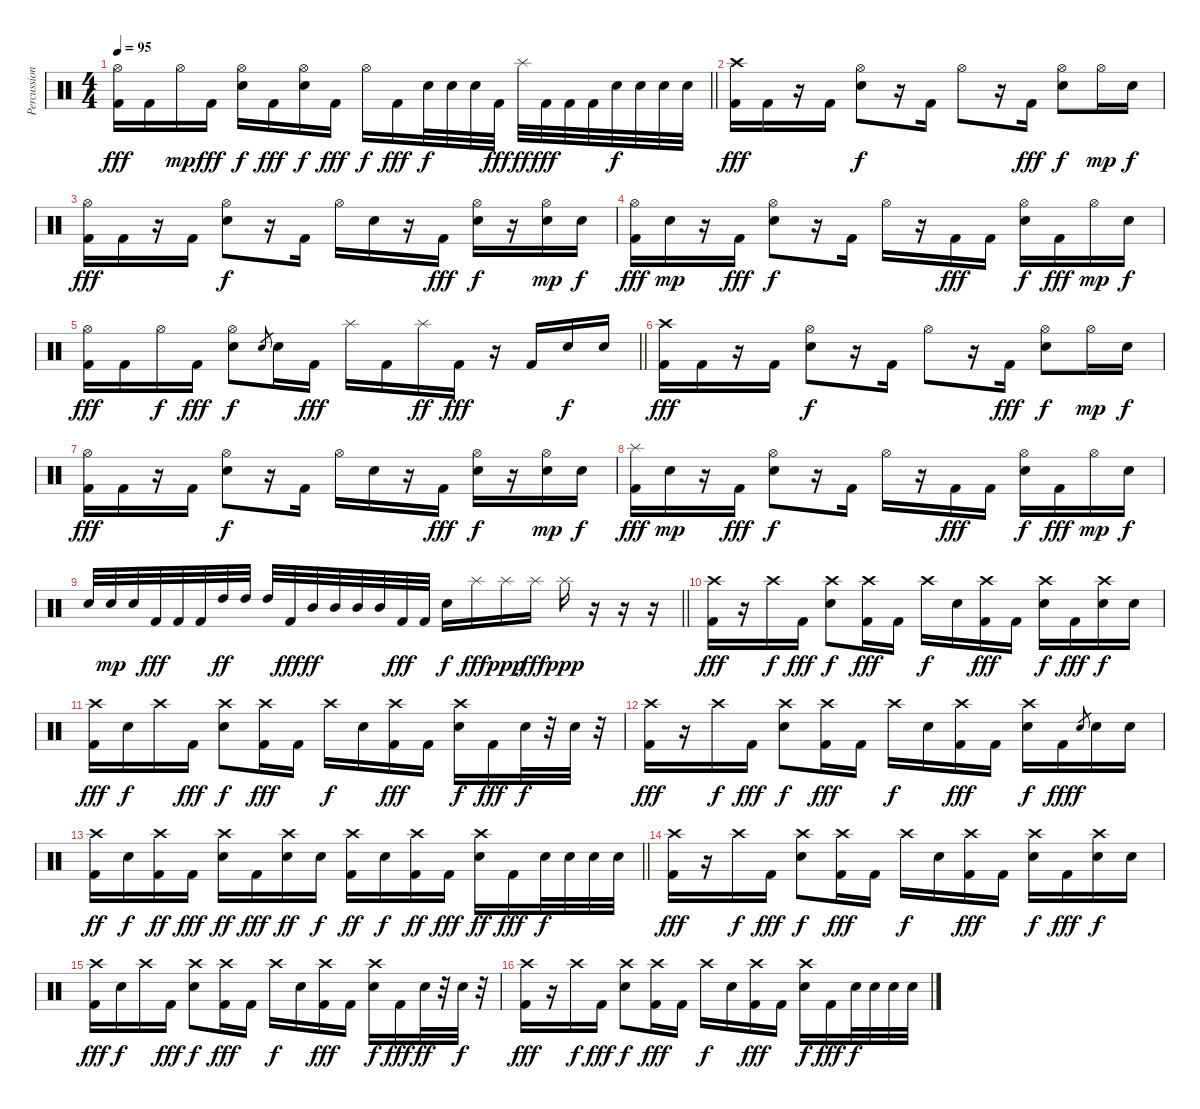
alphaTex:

\track ("Percussions" "Percussion") {instrument percussion}
\staff {score}
\articulation defaults
\ts (4 4)
\tempo 95
\clef neutral
\barLineRight lightlight
\ks c
("Kick (hit) 2" "Hi-Hat (open)").16{dy fff} "Kick (hit) 2".16 "Hi-Hat (open)".16{dy mp} "Kick (hit) 2".16{dy fff} ("Electric Snare (hit)" "Hi-Hat (open)").16{dy f} "Kick (hit) 2".16{dy fff} ("Electric Snare (hit)" "Hi-Hat (open)").16{dy f} "Kick (hit) 2".16{dy fff} "Hi-Hat (open)".16{dy f} "Kick (hit) 2".16{dy fff} "Electric Snare (hit)".32{dy f} "Electric Snare (hit)".32 "Electric Snare (hit)".32 "Kick (hit) 2".32{dy fff} "Splash (hit)".32{dy ff} "Kick (hit) 2".32{dy fff} "Kick (hit) 2".32 "Kick (hit) 2".32 "Electric Snare (hit)".32{dy f} "Electric Snare (hit)".32 "Electric Snare (hit)".32 "Electric Snare (hit)".32 |
("Kick (hit) 2" "Crash high (hit)").16{dy fff volume 15 balance 8} "Kick (hit) 2".16 r.16 "Kick (hit) 2".16 ("Electric Snare (hit)" "Hi-Hat (open)").8{dy f} r.16 "Kick (hit) 2".16 "Hi-Hat (open)".8 r.16 "Kick (hit) 2".16{dy fff} ("Electric Snare (hit)" "Hi-Hat (open)").8{dy f} "Hi-Hat (open)".16{dy mp} "Electric Snare (hit)".16{dy f} |
("Kick (hit) 2" "Hi-Hat (open)").16{dy fff volume 15 balance 8} "Kick (hit) 2".16 r.16 "Kick (hit) 2".16 ("Electric Snare (hit)" "Hi-Hat (open)").8{dy f} r.16 "Kick (hit) 2".16 "Hi-Hat (open)".16 "Electric Snare (hit)".16 r.16 "Kick (hit) 2".16{dy fff} ("Electric Snare (hit)" "Hi-Hat (open)").16{dy f} r.16 ("Hi-Hat (open)" "Electric Snare (hit)").16{dy mp} "Electric Snare (hit)".16{dy f} |
("Kick (hit) 2" "Hi-Hat (open)").16{dy fff volume 15 balance 8} "Electric Snare (hit)".16{dy mp} r.16 "Kick (hit) 2".16{dy fff} ("Electric Snare (hit)" "Hi-Hat (open)").8{dy f} r.16 "Kick (hit) 2".16 "Hi-Hat (open)".16 r.16 "Kick (hit) 2".16{dy fff} "Kick (hit) 2".16 ("Electric Snare (hit)" "Hi-Hat (open)").16{dy f} "Kick (hit) 2".16{dy fff} "Hi-Hat (open)".16{dy mp} "Electric Snare (hit)".16{dy f} |
\barLineRight lightlight
("Kick (hit) 2" "Hi-Hat (open)").16{dy fff} "Kick (hit) 2".16 "Hi-Hat (open)".16{dy f} "Kick (hit) 2".16{dy fff} ("Electric Snare (hit)" "Hi-Hat (open)").8{dy f} "Electric Snare (hit)".8{gr} "Electric Snare (hit)".16 "Kick (hit) 2".16{dy fff} "Splash (hit)".16 "Kick (hit) 2".16 "Splash (hit)".16{dy ff} "Kick (hit) 2".16{dy fff} r.16 "Kick (hit) 2".16 "Electric Snare (hit)".16{dy f} "Electric Snare (hit)".16 |
("Kick (hit) 2" "Crash high (hit)").16{dy fff volume 15 balance 8} "Kick (hit) 2".16 r.16 "Kick (hit) 2".16 ("Electric Snare (hit)" "Hi-Hat (open)").8{dy f} r.16 "Kick (hit) 2".16 "Hi-Hat (open)".8 r.16 "Kick (hit) 2".16{dy fff} ("Electric Snare (hit)" "Hi-Hat (open)").8{dy f} "Hi-Hat (open)".16{dy mp} "Electric Snare (hit)".16{dy f} |
("Kick (hit) 2" "Hi-Hat (open)").16{dy fff volume 15 balance 8} "Kick (hit) 2".16 r.16 "Kick (hit) 2".16 ("Electric Snare (hit)" "Hi-Hat (open)").8{dy f} r.16 "Kick (hit) 2".16 "Hi-Hat (open)".16 "Electric Snare (hit)".16 r.16 "Kick (hit) 2".16{dy fff} ("Electric Snare (hit)" "Hi-Hat (open)").16{dy f} r.16 ("Hi-Hat (open)" "Electric Snare (hit)").16{dy mp} "Electric Snare (hit)".16{dy f} |
("Kick (hit) 2" "Splash (hit)").16{dy fff volume 15 balance 8} "Electric Snare (hit)".16{dy mp} r.16 "Kick (hit) 2".16{dy fff} ("Electric Snare (hit)" "Hi-Hat (open)").8{dy f} r.16 "Kick (hit) 2".16 "Hi-Hat (open)".16 r.16 "Kick (hit) 2".16{dy fff} "Kick (hit) 2".16 ("Electric Snare (hit)" "Hi-Hat (open)").16{dy f} "Kick (hit) 2".16{dy fff} "Hi-Hat (open)".16{dy mp} "Electric Snare (hit)".16{dy f} |
\barLineRight lightlight "Electric Snare (hit)".32 "Electric Snare (hit)".32{dy mp} "Electric Snare (hit)".32 "Kick (hit) 2".32{dy fff} "Kick (hit) 2".32 "Kick (hit) 2".32 "High Tom (hit)".32{dy ff} "High Tom (hit)".32 "High Tom (hit)".32 "Kick (hit) 2".32{dy fff} "Mid Tom (hit)".32{dy ff} "Mid Tom (hit)".32 "Mid Tom (hit)".32 "Mid Tom (hit)".32 "Kick (hit) 2".32{dy fff} "Kick (hit) 2".32 "Electric Snare (hit)".16{dy f} "Splash (hit)".16{dy fff} "Splash (hit)".16{dy ppp} "Splash (hit)".16{dy fff} "Splash (hit)".16{dy ppp}
r.16 r.16 r.16 |
("Kick (hit) 2" "Crash high (hit)").16{dy fff} r.16 "Crash high (hit)".16{dy f} "Kick (hit) 2".16{dy fff} ("Electric Snare (hit)" "Crash high (hit)").8{dy f} ("Kick (hit) 2" "Crash high (hit)").16{dy fff} "Kick (hit) 2".16 "Crash high (hit)".16{dy f} "Electric Snare (hit)".16 ("Kick (hit) 2" "Crash high (hit)").16{dy fff} "Kick (hit) 2".16 ("Electric Snare (hit)" "Crash high (hit)").16{dy f} "Kick (hit) 2".16{dy fff} ("Electric Snare (hit)" "Crash high (hit)").16{dy f} "Electric Snare (hit)".16 |
("Kick (hit) 2" "Crash high (hit)").16{dy fff} "Electric Snare (hit)".16{dy f} "Crash high (hit)".16 "Kick (hit) 2".16{dy fff} ("Electric Snare (hit)" "Crash high (hit)").8{dy f} ("Kick (hit) 2" "Crash high (hit)").16{dy fff} "Kick (hit) 2".16 "Crash high (hit)".16{dy f} "Electric Snare (hit)".16 ("Kick (hit) 2" "Crash high (hit)").16{dy fff} "Kick (hit) 2".16 ("Electric Snare (hit)" "Crash high (hit)").16{dy f} "Kick (hit) 2".16{dy fff} "Electric Snare (hit)".32{dy f} r.32 "Electric Snare (hit)".32 r.32 |
("Kick (hit) 2" "Crash high (hit)").16{dy fff} r.16 "Crash high (hit)".16{dy f} "Kick (hit) 2".16{dy fff} ("Electric Snare (hit)" "Crash high (hit)").8{dy f} ("Kick (hit) 2" "Crash high (hit)").16{dy fff} "Kick (hit) 2".16 "Crash high (hit)".16{dy f} "Electric Snare (hit)".16 ("Kick (hit) 2" "Crash high (hit)").16{dy fff} "Kick (hit) 2".16 ("Electric Snare (hit)" "Crash high (hit)").16{dy f} "Kick (hit) 2".16{dy fff} "Electric Snare (hit)".8{gr dy f} "Electric Snare (hit)".16 "Electric Snare (hit)".16 |
\barLineRight lightlight
("Kick (hit) 2" "Crash high (hit)").16{dy ff} "Electric Snare (hit)".16{dy f} ("Kick (hit) 2" "Crash high (hit)").16{dy ff} "Kick (hit) 2".16{dy fff} ("Electric Snare (hit)" "Crash high (hit)").16{dy ff} "Kick (hit) 2".16{dy fff} ("Electric Snare (hit)" "Crash high (hit)").16{dy ff} "Electric Snare (hit)".16{dy f} ("Kick (hit) 2" "Crash high (hit)").16{dy ff} "Electric Snare (hit)".16{dy f} ("Kick (hit) 2" "Crash high (hit)").16{dy ff} "Kick (hit) 2".16{dy fff} ("Electric Snare (hit)" "Crash high (hit)").16{dy ff} "Kick (hit) 2".16{dy fff} "Electric Snare (hit)".32{dy f} "Electric Snare (hit)".32 "Electric Snare (hit)".32 "Electric Snare (hit)".32 |
("Kick (hit) 2" "Crash high (hit)").16{dy fff} r.16 "Crash high (hit)".16{dy f} "Kick (hit) 2".16{dy fff} ("Electric Snare (hit)" "Crash high (hit)").8{dy f} ("Kick (hit) 2" "Crash high (hit)").16{dy fff} "Kick (hit) 2".16 "Crash high (hit)".16{dy f} "Electric Snare (hit)".16 ("Kick (hit) 2" "Crash high (hit)").16{dy fff} "Kick (hit) 2".16 ("Electric Snare (hit)" "Crash high (hit)").16{dy f} "Kick (hit) 2".16{dy fff} ("Electric Snare (hit)" "Crash high (hit)").16{dy f} "Electric Snare (hit)".16 |
("Kick (hit) 2" "Crash high (hit)").16{dy fff} "Electric Snare (hit)".16{dy f} "Crash high (hit)".16 "Kick (hit) 2".16{dy fff} ("Electric Snare (hit)" "Crash high (hit)").8{dy f} ("Kick (hit) 2" "Crash high (hit)").16{dy fff} "Kick (hit) 2".16 "Crash high (hit)".16{dy f} "Electric Snare (hit)".16 ("Kick (hit) 2" "Crash high (hit)").16{dy fff} "Kick (hit) 2".16 ("Electric Snare (hit)" "Crash high (hit)").16{dy f} "Kick (hit) 2".16{dy fff} "Electric Snare (hit)".32{dy ff} r.32 "Electric Snare (hit)".32{dy f} r.32 |
("Kick (hit) 2" "Crash high (hit)").16{dy fff} r.16 "Crash high (hit)".16{dy f} "Kick (hit) 2".16{dy fff} ("Electric Snare (hit)" "Crash high (hit)").8{dy f} ("Kick (hit) 2" "Crash high (hit)").16{dy fff} "Kick (hit) 2".16 "Crash high (hit)".16{dy f} "Electric Snare (hit)".16 ("Kick (hit) 2" "Crash high (hit)").16{dy fff} "Kick (hit) 2".16 ("Electric Snare (hit)" "Crash high (hit)").16{dy f} "Kick (hit) 2".16{dy fff} "Electric Snare (hit)".32{dy f} "Electric Snare (hit)".32 "Electric Snare (hit)".32 "Electric Snare (hit)".32
